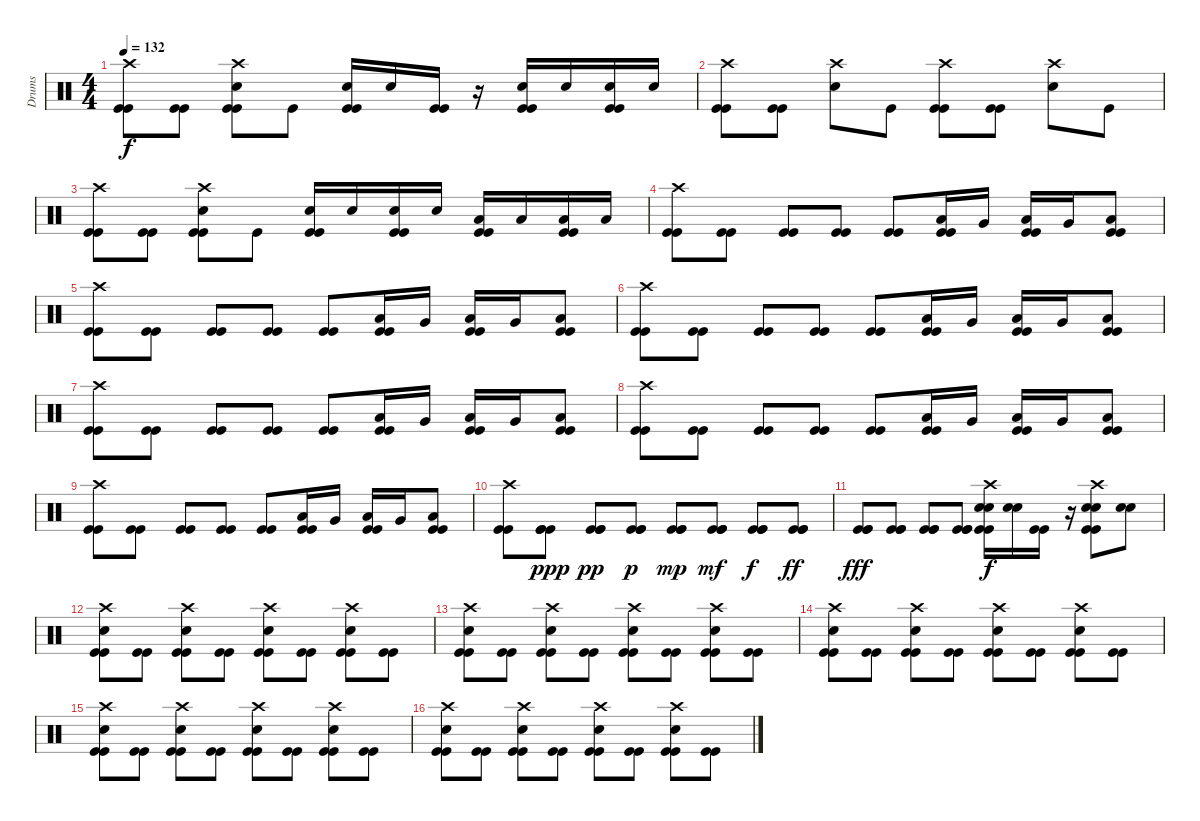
\track ("Drums" "Drums") {instrument percussion}
\staff {score}
\articulation defaults
\ts (4 4)
\tempo 132
\clef neutral
\ks c
("Crash high (hit)" "Kick (hit)" "Kick (hit)").8{dy f} ("Kick (hit)" "Kick (hit)").8 ("Crash high (hit)" "Electric Snare (hit)" "Kick (hit)" "Kick (hit)").8 "Kick (hit)".8 ("Electric Snare (hit)" "Kick (hit)" "Kick (hit)").16 "Electric Snare (hit)".16 ("Kick (hit)" "Kick (hit)").16 r.16 ("Electric Snare (hit)" "Kick (hit)" "Kick (hit)").16 "Electric Snare (hit)".16 ("Electric Snare (hit)" "Kick (hit)" "Kick (hit)").16 "Electric Snare (hit)".16 |
("Crash high (hit)" "Kick (hit)" "Kick (hit)").8 ("Kick (hit)" "Kick (hit)").8 ("Crash high (hit)" "Electric Snare (hit)").8 "Kick (hit)".8 ("Crash high (hit)" "Kick (hit)" "Kick (hit)").8 ("Kick (hit)" "Kick (hit)").8 ("Crash high (hit)" "Electric Snare (hit)").8 "Kick (hit)".8 |
("Crash high (hit)" "Kick (hit)" "Kick (hit)").8 ("Kick (hit)" "Kick (hit)").8 ("Crash high (hit)" "Electric Snare (hit)" "Kick (hit)" "Kick (hit)").8 "Kick (hit)".8 ("Electric Snare (hit)" "Kick (hit)" "Kick (hit)").16 "Electric Snare (hit)".16 ("Electric Snare (hit)" "Kick (hit)" "Kick (hit)").16 "Electric Snare (hit)".16 ("Low Tom (hit)" "Kick (hit)" "Kick (hit)").16 "Low Tom (hit)".16 ("Low Tom (hit)" "Kick (hit)" "Kick (hit)").16 "Low Tom (hit)".16 |
("Crash high (hit)" "Kick (hit)" "Kick (hit)").8 ("Kick (hit)" "Kick (hit)").8 ("Kick (hit)" "Kick (hit)").8 ("Kick (hit)" "Kick (hit)").8 ("Kick (hit)" "Kick (hit)").8 ("Low Tom (hit)" "Kick (hit)" "Kick (hit)").16 "Very Low Tom (hit)".16 ("Low Tom (hit)" "Kick (hit)" "Kick (hit)").16 "Very Low Tom (hit)".16 ("Low Tom (hit)" "Kick (hit)" "Kick (hit)").8 |
("Crash high (hit)" "Kick (hit)" "Kick (hit)").8 ("Kick (hit)" "Kick (hit)").8 ("Kick (hit)" "Kick (hit)").8 ("Kick (hit)" "Kick (hit)").8 ("Kick (hit)" "Kick (hit)").8 ("Low Tom (hit)" "Kick (hit)" "Kick (hit)").16 "Very Low Tom (hit)".16 ("Low Tom (hit)" "Kick (hit)" "Kick (hit)").16 "Very Low Tom (hit)".16 ("Low Tom (hit)" "Kick (hit)" "Kick (hit)").8 |
("Crash high (hit)" "Kick (hit)" "Kick (hit)").8 ("Kick (hit)" "Kick (hit)").8 ("Kick (hit)" "Kick (hit)").8 ("Kick (hit)" "Kick (hit)").8 ("Kick (hit)" "Kick (hit)").8 ("Low Tom (hit)" "Kick (hit)" "Kick (hit)").16 "Very Low Tom (hit)".16 ("Low Tom (hit)" "Kick (hit)" "Kick (hit)").16 "Very Low Tom (hit)".16 ("Low Tom (hit)" "Kick (hit)" "Kick (hit)").8 |
("Crash high (hit)" "Kick (hit)" "Kick (hit)").8 ("Kick (hit)" "Kick (hit)").8 ("Kick (hit)" "Kick (hit)").8 ("Kick (hit)" "Kick (hit)").8 ("Kick (hit)" "Kick (hit)").8 ("Low Tom (hit)" "Kick (hit)" "Kick (hit)").16 "Very Low Tom (hit)".16 ("Low Tom (hit)" "Kick (hit)" "Kick (hit)").16 "Very Low Tom (hit)".16 ("Low Tom (hit)" "Kick (hit)" "Kick (hit)").8 |
("Crash high (hit)" "Kick (hit)" "Kick (hit)").8 ("Kick (hit)" "Kick (hit)").8 ("Kick (hit)" "Kick (hit)").8 ("Kick (hit)" "Kick (hit)").8 ("Kick (hit)" "Kick (hit)").8 ("Low Tom (hit)" "Kick (hit)" "Kick (hit)").16 "Very Low Tom (hit)".16 ("Low Tom (hit)" "Kick (hit)" "Kick (hit)").16 "Very Low Tom (hit)".16 ("Low Tom (hit)" "Kick (hit)" "Kick (hit)").8 |
("Crash high (hit)" "Kick (hit)" "Kick (hit)").8 ("Kick (hit)" "Kick (hit)").8 ("Kick (hit)" "Kick (hit)").8 ("Kick (hit)" "Kick (hit)").8 ("Kick (hit)" "Kick (hit)").8 ("Low Tom (hit)" "Kick (hit)" "Kick (hit)").16 "Very Low Tom (hit)".16 ("Low Tom (hit)" "Kick (hit)" "Kick (hit)").16 "Very Low Tom (hit)".16 ("Low Tom (hit)" "Kick (hit)" "Kick (hit)").8 |
("Crash high (hit)" "Kick (hit)" "Kick (hit)").8 ("Kick (hit)" "Kick (hit)" "Kick (hit)").8{dy ppp} ("Kick (hit)" "Kick (hit)" "Kick (hit)").8{dy pp} ("Kick (hit)" "Kick (hit)" "Kick (hit)").8{dy p} ("Kick (hit)" "Kick (hit)" "Kick (hit)").8{dy mp} ("Kick (hit)" "Kick (hit)" "Kick (hit)").8{dy mf} ("Kick (hit)" "Kick (hit)" "Kick (hit)").8{dy f} ("Kick (hit)" "Kick (hit)" "Kick (hit)").8{dy ff} |
("Kick (hit)" "Kick (hit)" "Kick (hit)").8{dy fff} ("Kick (hit)" "Kick (hit)" "Kick (hit)").8 ("Kick (hit)" "Kick (hit)" "Kick (hit)").8 ("Kick (hit)" "Kick (hit)" "Kick (hit)").8 ("Crash high (hit)" "Electric Snare (hit)" "Electric Snare (hit)" "Kick (hit)" "Kick (hit)").16{dy f} ("Electric Snare (hit)" "Electric Snare (hit)").16 ("Kick (hit)" "Kick (hit)").16 r.16 ("Crash high (hit)" "Electric Snare (hit)" "Electric Snare (hit)" "Kick (hit)" "Kick (hit)").8 ("Electric Snare (hit)" "Electric Snare (hit)").8 |
("Crash high (hit)" "Electric Snare (hit)" "Kick (hit)" "Kick (hit)").8 ("Kick (hit)" "Kick (hit)").8 ("Crash high (hit)" "Electric Snare (hit)" "Kick (hit)" "Kick (hit)").8 ("Kick (hit)" "Kick (hit)").8 ("Crash high (hit)" "Electric Snare (hit)" "Kick (hit)" "Kick (hit)").8 ("Kick (hit)" "Kick (hit)").8 ("Crash high (hit)" "Electric Snare (hit)" "Kick (hit)" "Kick (hit)").8 ("Kick (hit)" "Kick (hit)").8 |
("Crash high (hit)" "Electric Snare (hit)" "Kick (hit)" "Kick (hit)").8 ("Kick (hit)" "Kick (hit)").8 ("Crash high (hit)" "Electric Snare (hit)" "Kick (hit)" "Kick (hit)").8 ("Kick (hit)" "Kick (hit)").8 ("Crash high (hit)" "Electric Snare (hit)" "Kick (hit)" "Kick (hit)").8 ("Kick (hit)" "Kick (hit)").8 ("Crash high (hit)" "Electric Snare (hit)" "Kick (hit)" "Kick (hit)").8 ("Kick (hit)" "Kick (hit)").8 |
("Crash high (hit)" "Electric Snare (hit)" "Kick (hit)" "Kick (hit)").8 ("Kick (hit)" "Kick (hit)").8 ("Crash high (hit)" "Electric Snare (hit)" "Kick (hit)" "Kick (hit)").8 ("Kick (hit)" "Kick (hit)").8 ("Crash high (hit)" "Electric Snare (hit)" "Kick (hit)" "Kick (hit)").8 ("Kick (hit)" "Kick (hit)").8 ("Crash high (hit)" "Electric Snare (hit)" "Kick (hit)" "Kick (hit)").8 ("Kick (hit)" "Kick (hit)").8 |
("Crash high (hit)" "Electric Snare (hit)" "Kick (hit)" "Kick (hit)").8 ("Kick (hit)" "Kick (hit)").8 ("Crash high (hit)" "Electric Snare (hit)" "Kick (hit)" "Kick (hit)").8 ("Kick (hit)" "Kick (hit)").8 ("Crash high (hit)" "Electric Snare (hit)" "Kick (hit)" "Kick (hit)").8 ("Kick (hit)" "Kick (hit)").8 ("Crash high (hit)" "Electric Snare (hit)" "Kick (hit)" "Kick (hit)").8 ("Kick (hit)" "Kick (hit)").8 |
("Crash high (hit)" "Electric Snare (hit)" "Kick (hit)" "Kick (hit)").8 ("Kick (hit)" "Kick (hit)").8 ("Crash high (hit)" "Electric Snare (hit)" "Kick (hit)" "Kick (hit)").8 ("Kick (hit)" "Kick (hit)").8 ("Crash high (hit)" "Electric Snare (hit)" "Kick (hit)" "Kick (hit)").8 ("Kick (hit)" "Kick (hit)").8 ("Crash high (hit)" "Electric Snare (hit)" "Kick (hit)" "Kick (hit)").8 ("Kick (hit)" "Kick (hit)").8
